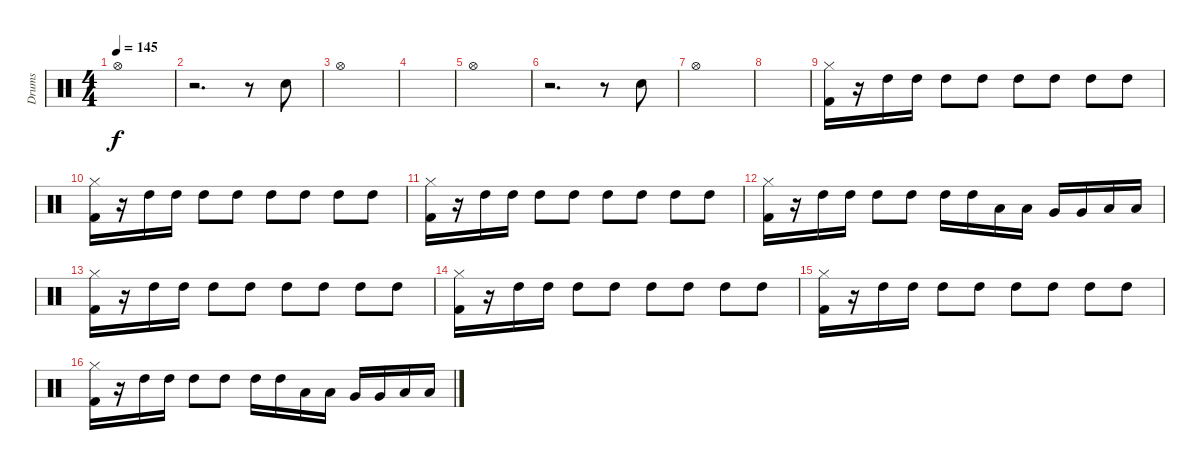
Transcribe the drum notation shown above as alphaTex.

\track ("Drums" "Drums") {instrument percussion}
\staff {score}
\articulation defaults
\ts (4 4)
\tempo 145
\clef neutral
\ks c "Hi-Hat (open)".1{dy f}
|
r.2{d} r.8 "Electric Snare (hit)".8 |
"Hi-Hat (open)".1 |
|
"Hi-Hat (open)".1 |
r.2{d} r.8 "Electric Snare (hit)".8 |
"Hi-Hat (open)".1 |
|
("Hi-Hat (closed)" "Kick (hit) 2").16 r.16 "High Tom (hit)".16 "High Tom (hit)".16 "High Tom (hit)".8 "High Tom (hit)".8 "High Tom (hit)".8 "High Tom (hit)".8 "High Tom (hit)".8 "High Tom (hit)".8 |
("Hi-Hat (closed)" "Kick (hit) 2").16 r.16 "High Tom (hit)".16 "High Tom (hit)".16 "High Tom (hit)".8 "High Tom (hit)".8 "High Tom (hit)".8 "High Tom (hit)".8 "High Tom (hit)".8 "High Tom (hit)".8 |
("Hi-Hat (closed)" "Kick (hit) 2").16 r.16 "High Tom (hit)".16 "High Tom (hit)".16 "High Tom (hit)".8 "High Tom (hit)".8 "High Tom (hit)".8 "High Tom (hit)".8 "High Tom (hit)".8 "High Tom (hit)".8 |
("Hi-Hat (closed)" "Kick (hit) 2").16 r.16 "High Tom (hit)".16 "High Tom (hit)".16 "High Tom (hit)".8 "High Tom (hit)".8 "High Tom (hit)".16 "High Tom (hit)".16 "Low Tom (hit)".16 "Low Tom (hit)".16 "Very Low Tom (hit)".16 "Very Low Tom (hit)".16 "Low Floor Tom (hit)".16 "Low Floor Tom (hit)".16 |
("Hi-Hat (closed)" "Kick (hit) 2").16 r.16 "High Tom (hit)".16 "High Tom (hit)".16 "High Tom (hit)".8 "High Tom (hit)".8 "High Tom (hit)".8 "High Tom (hit)".8 "High Tom (hit)".8 "High Tom (hit)".8 |
("Hi-Hat (closed)" "Kick (hit) 2").16 r.16 "High Tom (hit)".16 "High Tom (hit)".16 "High Tom (hit)".8 "High Tom (hit)".8 "High Tom (hit)".8 "High Tom (hit)".8 "High Tom (hit)".8 "High Tom (hit)".8 |
("Hi-Hat (closed)" "Kick (hit) 2").16 r.16 "High Tom (hit)".16 "High Tom (hit)".16 "High Tom (hit)".8 "High Tom (hit)".8 "High Tom (hit)".8 "High Tom (hit)".8 "High Tom (hit)".8 "High Tom (hit)".8 |
("Hi-Hat (closed)" "Kick (hit) 2").16 r.16 "High Tom (hit)".16 "High Tom (hit)".16 "High Tom (hit)".8 "High Tom (hit)".8 "High Tom (hit)".16 "High Tom (hit)".16 "Low Tom (hit)".16 "Low Tom (hit)".16 "Very Low Tom (hit)".16 "Very Low Tom (hit)".16 "Low Floor Tom (hit)".16 "Low Floor Tom (hit)".16
